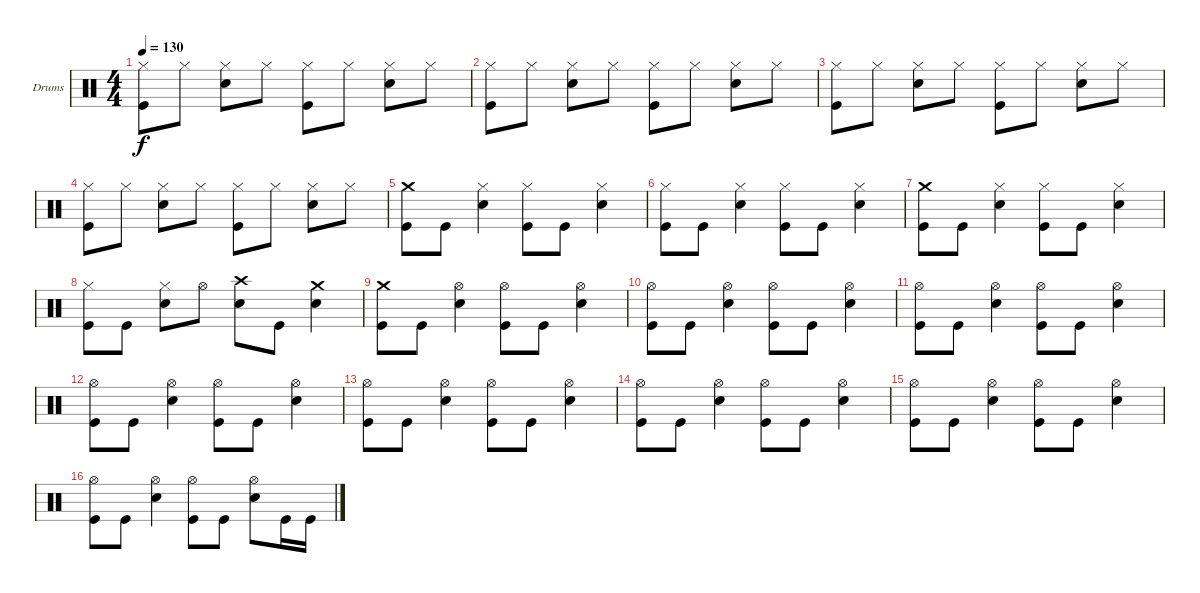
\defaultSystemsLayout 4
\bracketExtendMode groupsimilarinstruments
\firstSystemTrackNameOrientation horizontal
\otherSystemsTrackNameOrientation horizontal
\track ("Drumkit" "Drums") {instrument percussion}
\staff {score}
\articulation defaults
\ts (4 4)
\tempo 130
\clef neutral
\scale
0.333333
\ks c
("Hi-Hat (closed)" "Kick (hit)").8{dy f} "Hi-Hat (closed)".8 ("Hi-Hat (closed)" "Snare (hit) 2").8 "Hi-Hat (closed)".8 ("Hi-Hat (closed)" "Kick (hit)").8 "Hi-Hat (closed)".8 ("Hi-Hat (closed)" "Snare (hit) 2").8 "Hi-Hat (closed)".8 |
\scale
0.333333 ("Hi-Hat (closed)" "Kick (hit)").8 "Hi-Hat (closed)".8 ("Hi-Hat (closed)" "Snare (hit) 2").8 "Hi-Hat (closed)".8 ("Hi-Hat (closed)" "Kick (hit)").8 "Hi-Hat (closed)".8 ("Hi-Hat (closed)" "Snare (hit) 2").8 "Hi-Hat (closed)".8 |
\scale
0.333333 ("Hi-Hat (closed)" "Kick (hit)").8 "Hi-Hat (closed)".8 ("Hi-Hat (closed)" "Snare (hit) 2").8 "Hi-Hat (closed)".8 ("Hi-Hat (closed)" "Kick (hit)").8 "Hi-Hat (closed)".8 ("Hi-Hat (closed)" "Snare (hit) 2").8 "Hi-Hat (closed)".8 |
\scale
0.333333 ("Hi-Hat (closed)" "Kick (hit)").8 "Hi-Hat (closed)".8 ("Hi-Hat (closed)" "Snare (hit) 2").8 "Hi-Hat (closed)".8 ("Hi-Hat (closed)" "Kick (hit)").8 "Hi-Hat (closed)".8 ("Hi-Hat (closed)" "Snare (hit) 2").8 "Hi-Hat (closed)".8 |
\scale
0.333333 ("Crash medium (hit)" "Kick (hit)").8 "Kick (hit)".8 ("Hi-Hat (closed)" "Snare (hit) 2").4 ("Hi-Hat (closed)" "Kick (hit)").8 "Kick (hit)".8 ("Hi-Hat (closed)" "Snare (hit) 2").4 |
\scale
0.333333 ("Hi-Hat (closed)" "Kick (hit)").8 "Kick (hit)".8 ("Hi-Hat (closed)" "Snare (hit) 2").4 ("Hi-Hat (closed)" "Kick (hit)").8 "Kick (hit)".8 ("Hi-Hat (closed)" "Snare (hit) 2").4 |
\scale
0.333333 ("Crash medium (hit)" "Kick (hit)").8 "Kick (hit)".8 ("Hi-Hat (closed)" "Snare (hit) 2").4 ("Hi-Hat (closed)" "Kick (hit)").8 "Kick (hit)".8 ("Hi-Hat (closed)" "Snare (hit) 2").4 |
\scale
0.333333 ("Hi-Hat (closed)" "Kick (hit)").8 "Kick (hit)".8 ("Hi-Hat (closed)" "Snare (hit) 2").8 "Hi-Hat (open)".8 ("Crash high (hit)" "Snare (hit) 2").8 "Kick (hit)".8 ("Crash medium (hit)" "Snare (hit) 2").4 |
\scale
0.333333 ("Crash medium (hit)" "Kick (hit)").8 "Kick (hit)".8 ("Hi-Hat (open)" "Snare (hit) 2").4 ("Hi-Hat (open)" "Kick (hit)").8 "Kick (hit)".8 ("Hi-Hat (open)" "Snare (hit) 2").4 |
\scale
0.333333 ("Hi-Hat (open)" "Kick (hit)").8 "Kick (hit)".8 ("Hi-Hat (open)" "Snare (hit) 2").4 ("Hi-Hat (open)" "Kick (hit)").8 "Kick (hit)".8 ("Hi-Hat (open)" "Snare (hit) 2").4 |
\scale
0.333333 ("Hi-Hat (open)" "Kick (hit)").8 "Kick (hit)".8 ("Hi-Hat (open)" "Snare (hit) 2").4 ("Hi-Hat (open)" "Kick (hit)").8 "Kick (hit)".8 ("Hi-Hat (open)" "Snare (hit) 2").4 |
\scale
0.333333 ("Hi-Hat (open)" "Kick (hit)").8 "Kick (hit)".8 ("Hi-Hat (open)" "Snare (hit) 2").4 ("Hi-Hat (open)" "Kick (hit)").8 "Kick (hit)".8 ("Hi-Hat (open)" "Snare (hit) 2").4 |
\scale
0.333333 ("Hi-Hat (open)" "Kick (hit)").8 "Kick (hit)".8 ("Hi-Hat (open)" "Snare (hit) 2").4 ("Hi-Hat (open)" "Kick (hit)").8 "Kick (hit)".8 ("Hi-Hat (open)" "Snare (hit) 2").4 |
\scale
0.333333 ("Hi-Hat (open)" "Kick (hit)").8 "Kick (hit)".8 ("Hi-Hat (open)" "Snare (hit) 2").4 ("Hi-Hat (open)" "Kick (hit)").8 "Kick (hit)".8 ("Hi-Hat (open)" "Snare (hit) 2").4 |
\scale
0.333333 ("Hi-Hat (open)" "Kick (hit)").8 "Kick (hit)".8 ("Hi-Hat (open)" "Snare (hit) 2").4 ("Hi-Hat (open)" "Kick (hit)").8 "Kick (hit)".8 ("Hi-Hat (open)" "Snare (hit) 2").4 |
\scale
0.333333 ("Hi-Hat (open)" "Kick (hit)").8 "Kick (hit)".8 ("Hi-Hat (open)" "Snare (hit) 2").4 ("Hi-Hat (open)" "Kick (hit)").8 "Kick (hit)".8 ("Hi-Hat (open)" "Snare (hit) 2").8 "Kick (hit)".16 "Kick (hit)".16
